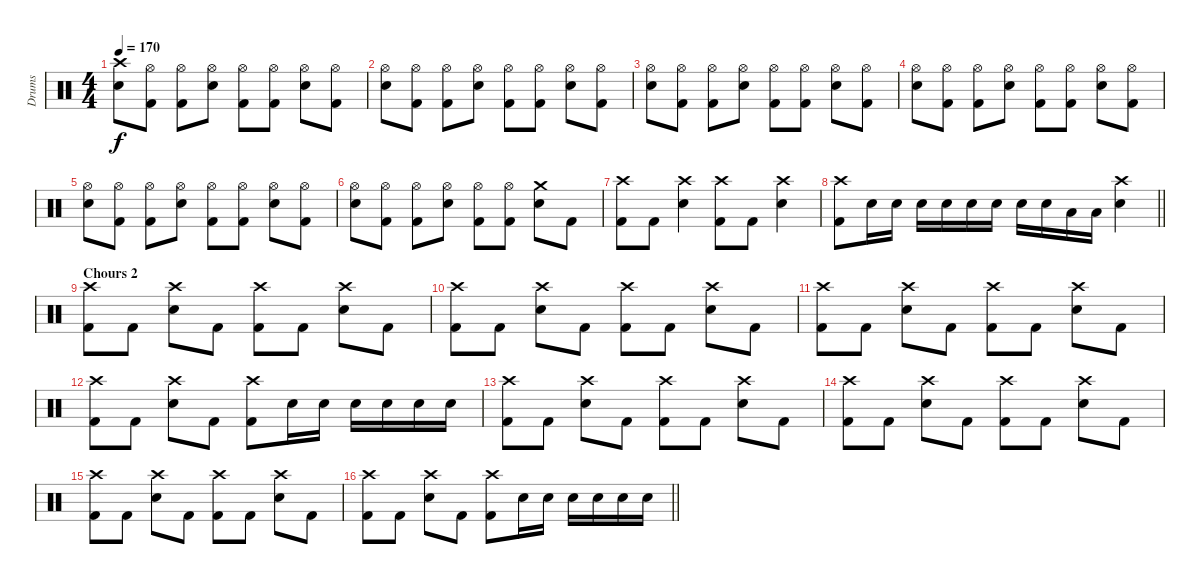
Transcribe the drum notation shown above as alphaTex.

\track ("Drums" "Drums") {instrument percussion}
\staff {score}
\articulation defaults
\ts (4 4)
\tempo 170
\clef neutral
\ks c
("Crash high (hit)" "Snare (hit) 2").8{dy f} ("Hi-Hat (open)" "Kick (hit) 2").8 ("Hi-Hat (open)" "Kick (hit) 2").8 ("Hi-Hat (open)" "Snare (hit) 2").8 ("Hi-Hat (open)" "Kick (hit) 2").8 ("Hi-Hat (open)" "Kick (hit) 2").8 ("Hi-Hat (open)" "Snare (hit) 2").8 ("Hi-Hat (open)" "Kick (hit) 2").8 |
("Hi-Hat (open)" "Snare (hit) 2").8 ("Hi-Hat (open)" "Kick (hit) 2").8 ("Hi-Hat (open)" "Kick (hit) 2").8 ("Hi-Hat (open)" "Snare (hit) 2").8 ("Hi-Hat (open)" "Kick (hit) 2").8 ("Hi-Hat (open)" "Kick (hit) 2").8 ("Hi-Hat (open)" "Snare (hit) 2").8 ("Hi-Hat (open)" "Kick (hit) 2").8 |
("Hi-Hat (open)" "Snare (hit) 2").8 ("Hi-Hat (open)" "Kick (hit) 2").8 ("Hi-Hat (open)" "Kick (hit) 2").8 ("Hi-Hat (open)" "Snare (hit) 2").8 ("Hi-Hat (open)" "Kick (hit) 2").8 ("Hi-Hat (open)" "Kick (hit) 2").8 ("Hi-Hat (open)" "Snare (hit) 2").8 ("Hi-Hat (open)" "Kick (hit) 2").8 |
("Hi-Hat (open)" "Snare (hit) 2").8 ("Hi-Hat (open)" "Kick (hit) 2").8 ("Hi-Hat (open)" "Kick (hit) 2").8 ("Hi-Hat (open)" "Snare (hit) 2").8 ("Hi-Hat (open)" "Kick (hit) 2").8 ("Hi-Hat (open)" "Kick (hit) 2").8 ("Hi-Hat (open)" "Snare (hit) 2").8 ("Hi-Hat (open)" "Kick (hit) 2").8 |
("Hi-Hat (open)" "Snare (hit) 2").8 ("Hi-Hat (open)" "Kick (hit) 2").8 ("Hi-Hat (open)" "Kick (hit) 2").8 ("Hi-Hat (open)" "Snare (hit) 2").8 ("Hi-Hat (open)" "Kick (hit) 2").8 ("Hi-Hat (open)" "Kick (hit) 2").8 ("Hi-Hat (open)" "Snare (hit) 2").8 ("Hi-Hat (open)" "Kick (hit) 2").8 |
("Hi-Hat (open)" "Snare (hit) 2").8 ("Hi-Hat (open)" "Kick (hit) 2").8 ("Hi-Hat (open)" "Kick (hit) 2").8 ("Hi-Hat (open)" "Snare (hit) 2").8 ("Hi-Hat (open)" "Kick (hit) 2").8 ("Hi-Hat (open)" "Kick (hit) 2").8 ("Crash medium (hit)" "Snare (hit) 2").8 "Kick (hit) 2".8 |
("Crash high (hit)" "Kick (hit) 2").8 "Kick (hit) 2".8 ("Crash high (hit)" "Snare (hit) 2").4 ("Crash high (hit)" "Kick (hit) 2").8 "Kick (hit) 2".8 ("Crash high (hit)" "Snare (hit) 2").4 |
\barLineRight lightlight
("Crash high (hit)" "Kick (hit) 2").8 "Snare (hit) 2".16 "Snare (hit) 2".16 "Snare (hit) 2".16 "Snare (hit) 2".16 "Snare (hit) 2".16 "Snare (hit) 2".16 "Snare (hit) 2".16 "Snare (hit) 2".16 "Low Tom (hit)".16 "Low Tom (hit)".16 ("Crash high (hit)" "Snare (hit) 2").4 |
\section ("" "Chours 2")
("Crash high (hit)" "Kick (hit) 2").8 "Kick (hit) 2".8 ("Crash high (hit)" "Snare (hit) 2").8 "Kick (hit) 2".8 ("Crash high (hit)" "Kick (hit) 2").8 "Kick (hit) 2".8 ("Crash high (hit)" "Snare (hit) 2").8 "Kick (hit) 2".8 |
("Crash high (hit)" "Kick (hit) 2").8 "Kick (hit) 2".8 ("Crash high (hit)" "Snare (hit) 2").8 "Kick (hit) 2".8 ("Crash high (hit)" "Kick (hit) 2").8 "Kick (hit) 2".8 ("Crash high (hit)" "Snare (hit) 2").8 "Kick (hit) 2".8 |
("Crash high (hit)" "Kick (hit) 2").8 "Kick (hit) 2".8 ("Crash high (hit)" "Snare (hit) 2").8 "Kick (hit) 2".8 ("Crash high (hit)" "Kick (hit) 2").8 "Kick (hit) 2".8 ("Crash high (hit)" "Snare (hit) 2").8 "Kick (hit) 2".8 |
("Crash high (hit)" "Kick (hit) 2").8 "Kick (hit) 2".8 ("Crash high (hit)" "Snare (hit) 2").8 "Kick (hit) 2".8 ("Crash high (hit)" "Kick (hit) 2").8 "Snare (hit) 2".16 "Snare (hit) 2".16 "Snare (hit) 2".16 "Snare (hit) 2".16 "Snare (hit) 2".16 "Snare (hit) 2".16 |
("Crash high (hit)" "Kick (hit) 2").8 "Kick (hit) 2".8 ("Crash high (hit)" "Snare (hit) 2").8 "Kick (hit) 2".8 ("Crash high (hit)" "Kick (hit) 2").8 "Kick (hit) 2".8 ("Crash high (hit)" "Snare (hit) 2").8 "Kick (hit) 2".8 |
("Crash high (hit)" "Kick (hit) 2").8 "Kick (hit) 2".8 ("Crash high (hit)" "Snare (hit) 2").8 "Kick (hit) 2".8 ("Crash high (hit)" "Kick (hit) 2").8 "Kick (hit) 2".8 ("Crash high (hit)" "Snare (hit) 2").8 "Kick (hit) 2".8 |
("Crash high (hit)" "Kick (hit) 2").8 "Kick (hit) 2".8 ("Crash high (hit)" "Snare (hit) 2").8 "Kick (hit) 2".8 ("Crash high (hit)" "Kick (hit) 2").8 "Kick (hit) 2".8 ("Crash high (hit)" "Snare (hit) 2").8 "Kick (hit) 2".8 |
\barLineRight lightlight
("Crash high (hit)" "Kick (hit) 2").8 "Kick (hit) 2".8 ("Crash high (hit)" "Snare (hit) 2").8 "Kick (hit) 2".8 ("Crash high (hit)" "Kick (hit) 2").8 "Snare (hit) 2".16 "Snare (hit) 2".16 "Snare (hit) 2".16 "Snare (hit) 2".16 "Snare (hit) 2".16 "Snare (hit) 2".16
